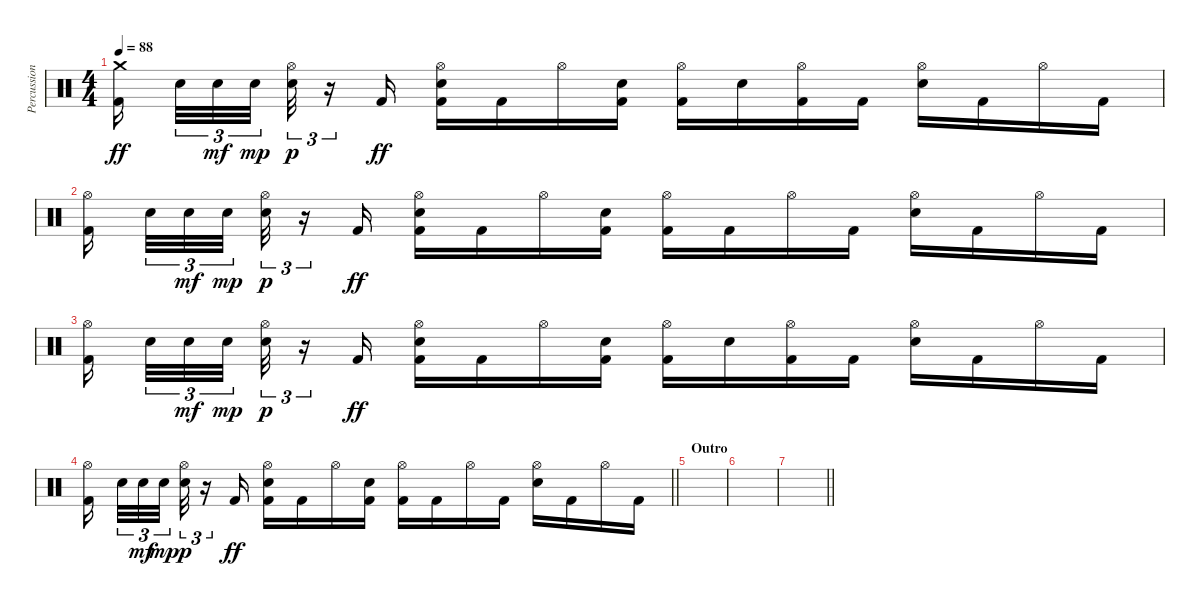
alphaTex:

\track ("Percussion" "Percussion") {instrument percussion}
\staff {score}
\articulation defaults
\ts (4 4)
\tempo 88
\clef neutral
\ks c
("Crash medium (hit)" "Kick (hit) 2").16{dy ff beam splitsecondary} "Snare (hit) 2".32{tu (3 2)} "Snare (hit) 2".32{tu (3 2) dy mf} "Snare (hit) 2".32{tu (3 2) dy mp beam splitsecondary} ("Hi-Hat (open)" "Snare (hit) 2").32{tu (3 2) dy p} r.16{tu (3 2)} "Kick (hit) 2".16{dy ff} ("Hi-Hat (open)" "Snare (hit) 2" "Kick (hit) 2").16 "Kick (hit) 2".16 "Hi-Hat (open)".16 ("Electric Snare (hit)" "Kick (hit) 2").16 ("Hi-Hat (open)" "Kick (hit) 2").16 "Snare (hit) 2".16 ("Hi-Hat (open)" "Kick (hit) 2").16 "Kick (hit) 2".16 ("Hi-Hat (open)" "Electric Snare (hit)").16 "Kick (hit) 2".16 "Hi-Hat (open)".16 "Kick (hit) 2".16 |
("Hi-Hat (open)" "Kick (hit) 2").16{beam splitsecondary} "Snare (hit) 2".32{tu (3 2)} "Snare (hit) 2".32{tu (3 2) dy mf} "Snare (hit) 2".32{tu (3 2) dy mp beam splitsecondary} ("Hi-Hat (open)" "Snare (hit) 2").32{tu (3 2) dy p} r.16{tu (3 2)} "Kick (hit) 2".16{dy ff} ("Hi-Hat (open)" "Electric Snare (hit)" "Kick (hit) 2").16 "Kick (hit) 2".16 "Hi-Hat (open)".16 ("Snare (hit) 2" "Kick (hit) 2").16 ("Hi-Hat (open)" "Kick (hit) 2").16 "Kick (hit) 2".16 "Hi-Hat (open)".16 "Kick (hit) 2".16 ("Hi-Hat (open)" "Electric Snare (hit)").16 "Kick (hit) 2".16 "Hi-Hat (open)".16 "Kick (hit) 2".16 |
("Hi-Hat (open)" "Kick (hit) 2").16{beam splitsecondary} "Snare (hit) 2".32{tu (3 2)} "Snare (hit) 2".32{tu (3 2) dy mf} "Snare (hit) 2".32{tu (3 2) dy mp beam splitsecondary} ("Hi-Hat (open)" "Snare (hit) 2").32{tu (3 2) dy p} r.16{tu (3 2)} "Kick (hit) 2".16{dy ff} ("Hi-Hat (open)" "Snare (hit) 2" "Kick (hit) 2").16 "Kick (hit) 2".16 "Hi-Hat (open)".16 ("Electric Snare (hit)" "Kick (hit) 2").16 ("Hi-Hat (open)" "Kick (hit) 2").16 "Snare (hit) 2".16 ("Hi-Hat (open)" "Kick (hit) 2").16 "Kick (hit) 2".16 ("Hi-Hat (open)" "Electric Snare (hit)").16 "Kick (hit) 2".16 "Hi-Hat (open)".16 "Kick (hit) 2".16 |
\barLineRight lightlight
("Hi-Hat (open)" "Kick (hit) 2").16{beam splitsecondary} "Snare (hit) 2".32{tu (3 2)} "Snare (hit) 2".32{tu (3 2) dy mf} "Snare (hit) 2".32{tu (3 2) dy mp beam splitsecondary} ("Hi-Hat (open)" "Snare (hit) 2").32{tu (3 2) dy p} r.16{tu (3 2)} "Kick (hit) 2".16{dy ff} ("Hi-Hat (open)" "Electric Snare (hit)" "Kick (hit) 2").16 "Kick (hit) 2".16 "Hi-Hat (open)".16 ("Snare (hit) 2" "Kick (hit) 2").16 ("Hi-Hat (open)" "Kick (hit) 2").16 "Kick (hit) 2".16 "Hi-Hat (open)".16 "Kick (hit) 2".16 ("Hi-Hat (open)" "Electric Snare (hit)").16 "Kick (hit) 2".16 "Hi-Hat (open)".16 "Kick (hit) 2".16 |
\section ("" "Outro")
|
|
\barLineRight lightlight
